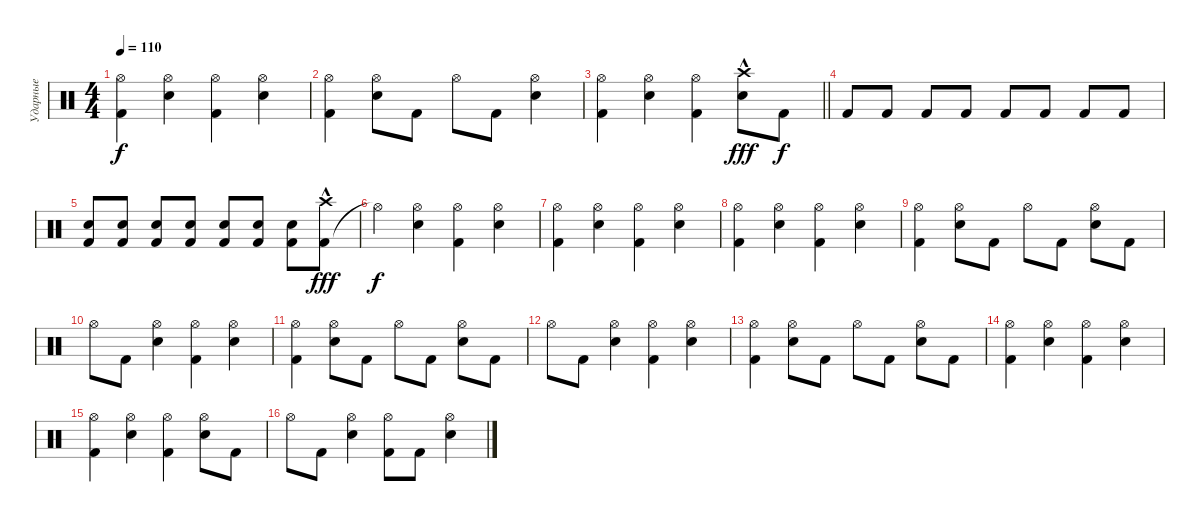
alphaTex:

\track ("Ударные" "Ударные") {instrument percussion}
\staff {score}
\articulation defaults
\ts (4 4)
\tempo 110
\clef neutral
\ks c
("Kick (hit) 2" "Hi-Hat (open)").4{dy f} ("Snare (hit) 2" "Hi-Hat (open)").4 ("Kick (hit) 2" "Hi-Hat (open)").4 ("Snare (hit) 2" "Hi-Hat (open)").4 |
("Kick (hit) 2" "Hi-Hat (open)").4 ("Snare (hit) 2" "Hi-Hat (open)").8 "Kick (hit) 2".8 "Hi-Hat (open)".8 "Kick (hit) 2".8 ("Snare (hit) 2" "Hi-Hat (open)").4 |
\barLineRight lightlight
("Kick (hit) 2" "Hi-Hat (open)").4 ("Snare (hit) 2" "Hi-Hat (open)").4 ("Kick (hit) 2" "Hi-Hat (open)").4 ("Snare (hit) 2" "Crash high (hit)"{hac}).8{dy fff} "Kick (hit) 2".8{dy f} |
"Kick (hit) 2".8 "Kick (hit) 2".8 "Kick (hit) 2".8 "Kick (hit) 2".8 "Kick (hit) 2".8 "Kick (hit) 2".8 "Kick (hit) 2".8 "Kick (hit) 2".8 |
("Kick (hit) 2" "Electric Snare (hit)").8 ("Kick (hit) 2" "Electric Snare (hit)").8 ("Kick (hit) 2" "Electric Snare (hit)").8 ("Kick (hit) 2" "Electric Snare (hit)").8 ("Kick (hit) 2" "Snare (hit) 2").8 ("Kick (hit) 2" "Snare (hit) 2").8 ("Kick (hit) 2" "Snare (hit) 2").8 ("Kick (hit) 2" "Crash high (hit)"{hac}).8{dy fff} |
"Hi-Hat (open)"{t}.4{dy f} ("Snare (hit) 2" "Hi-Hat (open)").4 ("Kick (hit) 2" "Hi-Hat (open)").4 ("Snare (hit) 2" "Hi-Hat (open)").4 |
("Kick (hit) 2" "Hi-Hat (open)").4 ("Snare (hit) 2" "Hi-Hat (open)").4 ("Kick (hit) 2" "Hi-Hat (open)").4 ("Snare (hit) 2" "Hi-Hat (open)").4 |
("Kick (hit) 2" "Hi-Hat (open)").4 ("Snare (hit) 2" "Hi-Hat (open)").4 ("Kick (hit) 2" "Hi-Hat (open)").4 ("Snare (hit) 2" "Hi-Hat (open)").4 |
("Kick (hit) 2" "Hi-Hat (open)").4 ("Snare (hit) 2" "Hi-Hat (open)").8 "Kick (hit) 2".8 "Hi-Hat (open)".8 "Kick (hit) 2".8 ("Snare (hit) 2" "Hi-Hat (open)").8 "Kick (hit) 2".8 |
"Hi-Hat (open)".8 "Kick (hit) 2".8 ("Snare (hit) 2" "Hi-Hat (open)").4 ("Kick (hit) 2" "Hi-Hat (open)").4 ("Snare (hit) 2" "Hi-Hat (open)").4 |
("Kick (hit) 2" "Hi-Hat (open)").4 ("Snare (hit) 2" "Hi-Hat (open)").8 "Kick (hit) 2".8 "Hi-Hat (open)".8 "Kick (hit) 2".8 ("Snare (hit) 2" "Hi-Hat (open)").8 "Kick (hit) 2".8 |
"Hi-Hat (open)".8 "Kick (hit) 2".8 ("Snare (hit) 2" "Hi-Hat (open)").4 ("Kick (hit) 2" "Hi-Hat (open)").4 ("Snare (hit) 2" "Hi-Hat (open)").4 |
("Kick (hit) 2" "Hi-Hat (open)").4 ("Snare (hit) 2" "Hi-Hat (open)").8 "Kick (hit) 2".8 "Hi-Hat (open)".8 "Kick (hit) 2".8 ("Snare (hit) 2" "Hi-Hat (open)").8 "Kick (hit) 2".8 |
("Kick (hit) 2" "Hi-Hat (open)").4 ("Snare (hit) 2" "Hi-Hat (open)").4 ("Kick (hit) 2" "Hi-Hat (open)").4 ("Snare (hit) 2" "Hi-Hat (open)").4 |
("Kick (hit) 2" "Hi-Hat (open)").4 ("Snare (hit) 2" "Hi-Hat (open)").4 ("Kick (hit) 2" "Hi-Hat (open)").4 ("Snare (hit) 2" "Hi-Hat (open)").8 "Kick (hit) 2".8 |
"Hi-Hat (open)".8 "Kick (hit) 2".8 ("Snare (hit) 2" "Hi-Hat (open)").4 ("Kick (hit) 2" "Hi-Hat (open)").8 "Kick (hit) 2".8 ("Snare (hit) 2" "Hi-Hat (open)").4
